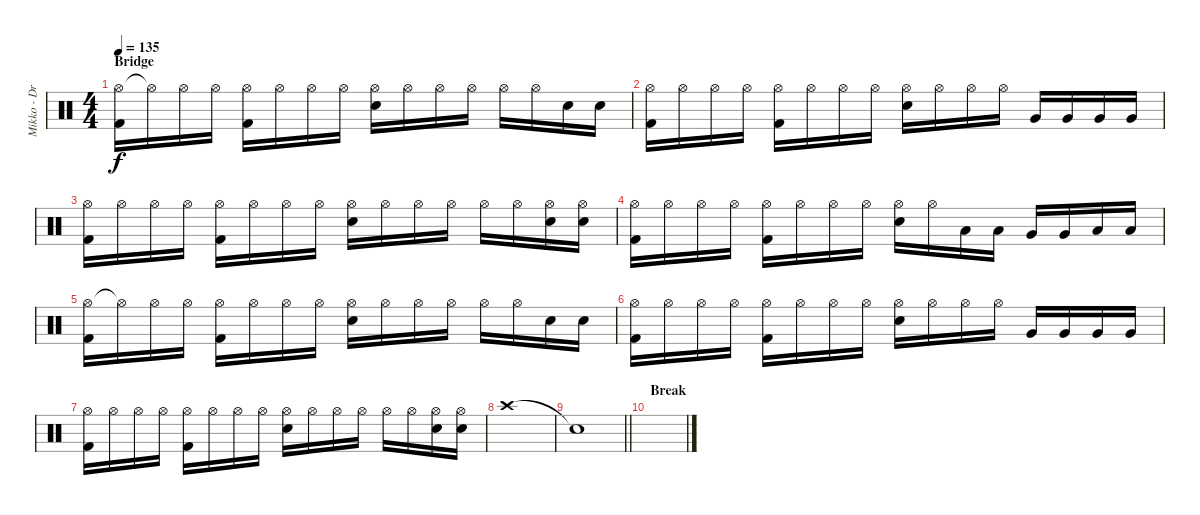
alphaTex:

\track ("Mikko - Drums" "Mikko - Dr") {instrument percussion}
\staff {score}
\articulation defaults
\ts (4 4)
\section ("" "Bridge")
\tempo 135
\clef neutral
\ks c
("Hi-Hat (open)" "Kick (hit) 2").16{dy f} "Hi-Hat (open)"{t}.16 "Hi-Hat (open)".16 "Hi-Hat (open)".16 ("Hi-Hat (open)" "Kick (hit) 2").16 "Hi-Hat (open)".16 "Hi-Hat (open)".16 "Hi-Hat (open)".16 ("Hi-Hat (open)" "Snare (hit) 2").16 "Hi-Hat (open)".16 "Hi-Hat (open)".16 "Hi-Hat (open)".16 "Hi-Hat (open)".16 "Hi-Hat (open)".16 "Snare (hit) 2".16 "Snare (hit) 2".16 |
("Hi-Hat (open)" "Kick (hit) 2").16 "Hi-Hat (open)".16 "Hi-Hat (open)".16 "Hi-Hat (open)".16 ("Hi-Hat (open)" "Kick (hit) 2").16 "Hi-Hat (open)".16 "Hi-Hat (open)".16 "Hi-Hat (open)".16 ("Hi-Hat (open)" "Snare (hit) 2").16 "Hi-Hat (open)".16 "Hi-Hat (open)".16 "Hi-Hat (open)".16 "Very Low Tom (hit)".16 "Very Low Tom (hit)".16 "Very Low Tom (hit)".16 "Very Low Tom (hit)".16 |
("Hi-Hat (open)" "Kick (hit) 2").16 "Hi-Hat (open)".16 "Hi-Hat (open)".16 "Hi-Hat (open)".16 ("Hi-Hat (open)" "Kick (hit) 2").16 "Hi-Hat (open)".16 "Hi-Hat (open)".16 "Hi-Hat (open)".16 ("Hi-Hat (open)" "Snare (hit) 2").16 "Hi-Hat (open)".16 "Hi-Hat (open)".16 "Hi-Hat (open)".16 "Hi-Hat (open)".16 "Hi-Hat (open)".16 ("Hi-Hat (open)" "Snare (hit) 2").16 ("Hi-Hat (open)" "Snare (hit) 2").16 |
("Hi-Hat (open)" "Kick (hit) 2").16 "Hi-Hat (open)".16 "Hi-Hat (open)".16 "Hi-Hat (open)".16 ("Hi-Hat (open)" "Kick (hit) 2").16 "Hi-Hat (open)".16 "Hi-Hat (open)".16 "Hi-Hat (open)".16 ("Hi-Hat (open)" "Snare (hit) 2").16 "Hi-Hat (open)".16 "Low Tom (hit)".16 "Low Tom (hit)".16 "Very Low Tom (hit)".16 "Very Low Tom (hit)".16 "Low Floor Tom (hit)".16 "Low Floor Tom (hit)".16 |
("Hi-Hat (open)" "Kick (hit) 2").16 "Hi-Hat (open)"{t}.16 "Hi-Hat (open)".16 "Hi-Hat (open)".16 ("Hi-Hat (open)" "Kick (hit) 2").16 "Hi-Hat (open)".16 "Hi-Hat (open)".16 "Hi-Hat (open)".16 ("Hi-Hat (open)" "Snare (hit) 2").16 "Hi-Hat (open)".16 "Hi-Hat (open)".16 "Hi-Hat (open)".16 "Hi-Hat (open)".16 "Hi-Hat (open)".16 "Snare (hit) 2".16 "Snare (hit) 2".16 |
("Hi-Hat (open)" "Kick (hit) 2").16 "Hi-Hat (open)".16 "Hi-Hat (open)".16 "Hi-Hat (open)".16 ("Hi-Hat (open)" "Kick (hit) 2").16 "Hi-Hat (open)".16 "Hi-Hat (open)".16 "Hi-Hat (open)".16 ("Hi-Hat (open)" "Snare (hit) 2").16 "Hi-Hat (open)".16 "Hi-Hat (open)".16 "Hi-Hat (open)".16 "Very Low Tom (hit)".16 "Very Low Tom (hit)".16 "Very Low Tom (hit)".16 "Very Low Tom (hit)".16 |
("Hi-Hat (open)" "Kick (hit) 2").16 "Hi-Hat (open)".16 "Hi-Hat (open)".16 "Hi-Hat (open)".16 ("Hi-Hat (open)" "Kick (hit) 2").16 "Hi-Hat (open)".16 "Hi-Hat (open)".16 "Hi-Hat (open)".16 ("Hi-Hat (open)" "Snare (hit) 2").16 "Hi-Hat (open)".16 "Hi-Hat (open)".16 "Hi-Hat (open)".16 "Hi-Hat (open)".16 "Hi-Hat (open)".16 ("Hi-Hat (open)" "Snare (hit) 2").16 ("Hi-Hat (open)" "Snare (hit) 2").16 |
"Crash high (hit)".1 |
\barLineRight lightlight "Snare (hit)"{t}.1
|
\section ("" "Break")
